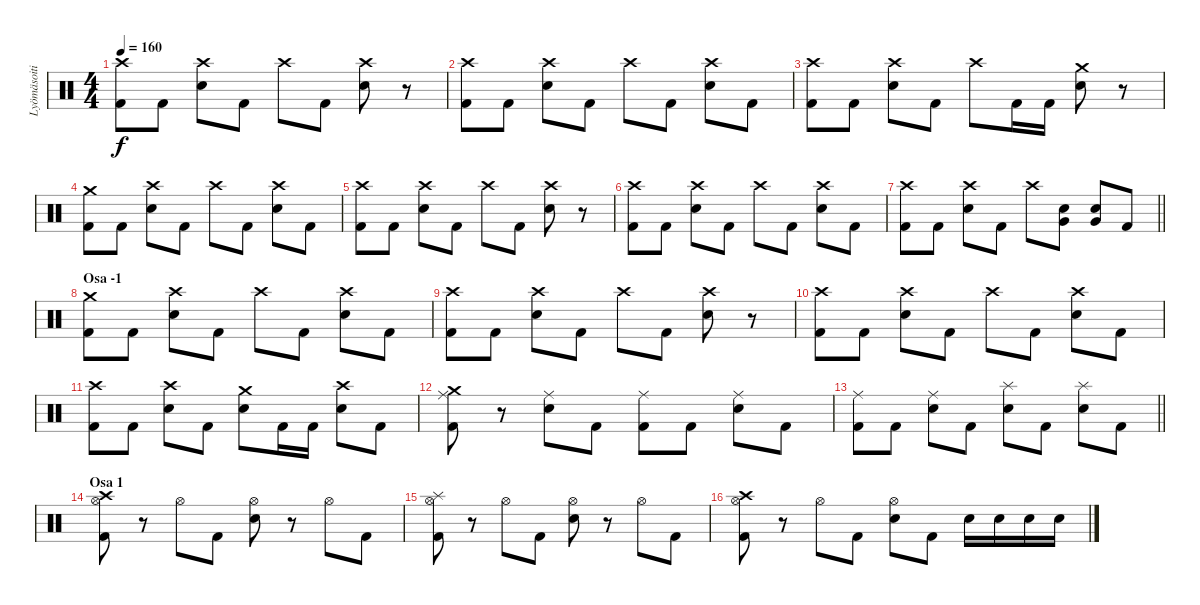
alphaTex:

\track ("Lyömäsoitin" "Lyömäsoiti") {instrument percussion}
\staff {score}
\articulation defaults
\ts (4 4)
\tempo 160
\clef neutral
\ks c
("Crash high (hit)" "Kick (hit) 2").8{dy f} "Kick (hit) 2".8 ("Crash high (hit)" "Snare (hit) 2").8 "Kick (hit) 2".8 "Crash high (hit)".8 "Kick (hit) 2".8 ("Crash high (hit)" "Snare (hit) 2").8 r.8 |
("Crash high (hit)" "Kick (hit) 2").8 "Kick (hit) 2".8 ("Crash high (hit)" "Snare (hit) 2").8 "Kick (hit) 2".8 "Crash high (hit)".8 "Kick (hit) 2".8 ("Crash high (hit)" "Snare (hit) 2").8 "Kick (hit) 2".8 |
("Crash high (hit)" "Kick (hit) 2").8 "Kick (hit) 2".8 ("Crash high (hit)" "Snare (hit) 2").8 "Kick (hit) 2".8 "Crash high (hit)".8 "Kick (hit) 2".16 "Kick (hit) 2".16 ("Crash medium (hit)" "Snare (hit) 2").8 r.8 |
("Crash medium (hit)" "Kick (hit) 2").8 "Kick (hit) 2".8 ("Crash high (hit)" "Snare (hit) 2").8 "Kick (hit) 2".8 "Crash high (hit)".8 "Kick (hit) 2".8 ("Crash high (hit)" "Snare (hit) 2").8 "Kick (hit) 2".8 |
("Crash high (hit)" "Kick (hit) 2").8 "Kick (hit) 2".8 ("Crash high (hit)" "Snare (hit) 2").8 "Kick (hit) 2".8 "Crash high (hit)".8 "Kick (hit) 2".8 ("Crash high (hit)" "Snare (hit) 2").8 r.8 |
("Crash high (hit)" "Kick (hit) 2").8 "Kick (hit) 2".8 ("Crash high (hit)" "Snare (hit) 2").8 "Kick (hit) 2".8 "Crash high (hit)".8 "Kick (hit) 2".8 ("Crash high (hit)" "Snare (hit) 2").8 "Kick (hit) 2".8 |
\barLineRight lightlight
("Crash high (hit)" "Kick (hit) 2").8 "Kick (hit) 2".8 ("Crash high (hit)" "Snare (hit) 2").8 "Kick (hit) 2".8 "Crash high (hit)".8 ("Very Low Tom (hit)" "Snare (hit) 2").8 ("Very Low Tom (hit)" "Snare (hit) 2").8 "Kick (hit) 2".8 |
\section ("" "Osa -1")
("Crash medium (hit)" "Kick (hit) 2").8 "Kick (hit) 2".8 ("Crash high (hit)" "Snare (hit) 2").8 "Kick (hit) 2".8 "Crash high (hit)".8 "Kick (hit) 2".8 ("Crash high (hit)" "Snare (hit) 2").8 "Kick (hit) 2".8 |
("Crash high (hit)" "Kick (hit) 2").8 "Kick (hit) 2".8 ("Crash high (hit)" "Snare (hit) 2").8 "Kick (hit) 2".8 "Crash high (hit)".8 "Kick (hit) 2".8 ("Crash high (hit)" "Snare (hit) 2").8 r.8 |
("Crash high (hit)" "Kick (hit) 2").8 "Kick (hit) 2".8 ("Crash high (hit)" "Snare (hit) 2").8 "Kick (hit) 2".8 "Crash high (hit)".8 "Kick (hit) 2".8 ("Crash high (hit)" "Snare (hit) 2").8 "Kick (hit) 2".8 |
("Crash high (hit)" "Kick (hit) 2").8 "Kick (hit) 2".8 ("Crash high (hit)" "Snare (hit) 2").8 "Kick (hit) 2".8 ("Crash medium (hit)" "Snare (hit) 2").8 "Kick (hit) 2".16 "Kick (hit) 2".16 ("Crash high (hit)" "Snare (hit) 2").8 "Kick (hit) 2".8 |
("Crash medium (hit)" "Ride (middle)" "Kick (hit) 2").8 r.8 ("Ride (middle)" "Snare (hit) 2").8 "Kick (hit) 2".8 ("Ride (middle)" "Kick (hit) 2").8 "Kick (hit) 2".8 ("Ride (middle)" "Snare (hit) 2").8 "Kick (hit) 2".8 |
\barLineRight lightlight
("Ride (middle)" "Kick (hit) 2").8 "Kick (hit) 2".8 ("Ride (middle)" "Snare (hit) 2").8 "Kick (hit) 2".8 ("Splash (hit)" "Snare (hit) 2").8 "Kick (hit) 2".8 ("Splash (hit)" "Snare (hit) 2").8 "Kick (hit) 2".8 |
\section ("" "Osa 1")
("Crash high (hit)" "Hi-Hat (open)" "Kick (hit) 2").8 r.8 "Hi-Hat (open)".8 "Kick (hit) 2".8 ("Snare (hit) 2" "Hi-Hat (open)").8 r.8 "Hi-Hat (open)".8 "Kick (hit) 2".8 |
("Splash (hit)" "Hi-Hat (open)" "Kick (hit) 2").8 r.8 "Hi-Hat (open)".8 "Kick (hit) 2".8 ("Snare (hit) 2" "Hi-Hat (open)").8 r.8 "Hi-Hat (open)".8 "Kick (hit) 2".8 |
("Crash high (hit)" "Hi-Hat (open)" "Kick (hit) 2").8 r.8 "Hi-Hat (open)".8 "Kick (hit) 2".8 ("Snare (hit) 2" "Hi-Hat (open)").8 "Kick (hit) 2".8 "Snare (hit) 2".16 "Snare (hit) 2".16 "Snare (hit) 2".16 "Snare (hit) 2".16
